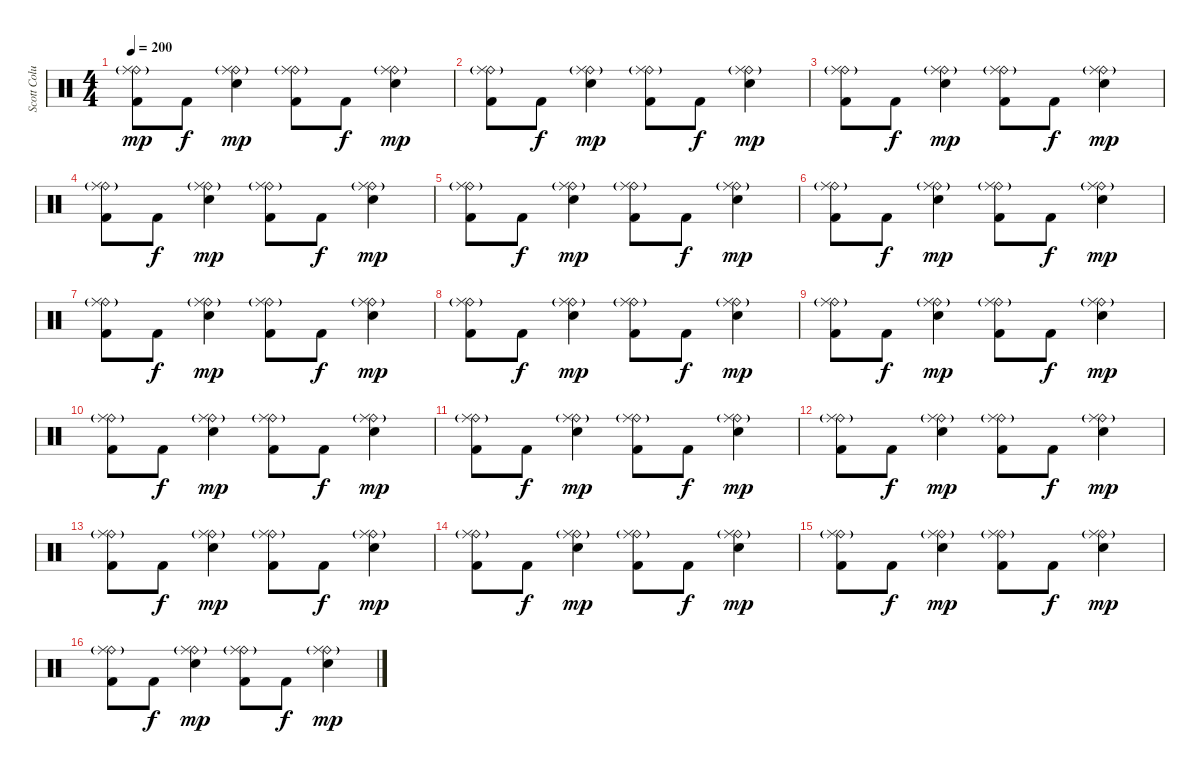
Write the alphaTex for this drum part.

\track ("Scott Columbus" "Scott Colu") {instrument percussion}
\staff {score}
\articulation defaults
\ts (4 4)
\tempo 200
\clef neutral
\ks c
("Ride (bell)"{g} "Ride (middle)" "Kick (hit) 2").8{dy mp} "Kick (hit) 2".8{dy f} ("Ride (bell)"{g} "Ride (middle)" "Snare (hit) 2").4{dy mp} ("Ride (bell)"{g} "Ride (middle)" "Kick (hit) 2").8 "Kick (hit) 2".8{dy f} ("Ride (bell)"{g} "Ride (middle)" "Snare (hit) 2").4{dy mp} |
("Ride (bell)"{g} "Ride (middle)" "Kick (hit) 2").8 "Kick (hit) 2".8{dy f} ("Ride (bell)"{g} "Ride (middle)" "Snare (hit) 2").4{dy mp} ("Ride (bell)"{g} "Ride (middle)" "Kick (hit) 2").8 "Kick (hit) 2".8{dy f} ("Ride (bell)"{g} "Ride (middle)" "Snare (hit) 2").4{dy mp} |
("Ride (bell)"{g} "Ride (middle)" "Kick (hit) 2").8 "Kick (hit) 2".8{dy f} ("Ride (bell)"{g} "Ride (middle)" "Snare (hit) 2").4{dy mp} ("Ride (bell)"{g} "Ride (middle)" "Kick (hit) 2").8 "Kick (hit) 2".8{dy f} ("Ride (bell)"{g} "Ride (middle)" "Snare (hit) 2").4{dy mp} |
("Ride (bell)"{g} "Ride (middle)" "Kick (hit) 2").8 "Kick (hit) 2".8{dy f} ("Ride (bell)"{g} "Ride (middle)" "Snare (hit) 2").4{dy mp} ("Ride (bell)"{g} "Ride (middle)" "Kick (hit) 2").8 "Kick (hit) 2".8{dy f} ("Ride (bell)"{g} "Ride (middle)" "Snare (hit) 2").4{dy mp} |
("Ride (bell)"{g} "Ride (middle)" "Kick (hit) 2").8 "Kick (hit) 2".8{dy f} ("Ride (bell)"{g} "Ride (middle)" "Snare (hit) 2").4{dy mp} ("Ride (bell)"{g} "Ride (middle)" "Kick (hit) 2").8 "Kick (hit) 2".8{dy f} ("Ride (bell)"{g} "Ride (middle)" "Snare (hit) 2").4{dy mp} |
("Ride (bell)"{g} "Ride (middle)" "Kick (hit) 2").8 "Kick (hit) 2".8{dy f} ("Ride (bell)"{g} "Ride (middle)" "Snare (hit) 2").4{dy mp} ("Ride (bell)"{g} "Ride (middle)" "Kick (hit) 2").8 "Kick (hit) 2".8{dy f} ("Ride (bell)"{g} "Ride (middle)" "Snare (hit) 2").4{dy mp} |
("Ride (bell)"{g} "Ride (middle)" "Kick (hit) 2").8 "Kick (hit) 2".8{dy f} ("Ride (bell)"{g} "Ride (middle)" "Snare (hit) 2").4{dy mp} ("Ride (bell)"{g} "Ride (middle)" "Kick (hit) 2").8 "Kick (hit) 2".8{dy f} ("Ride (bell)"{g} "Ride (middle)" "Snare (hit) 2").4{dy mp} |
("Ride (bell)"{g} "Ride (middle)" "Kick (hit) 2").8 "Kick (hit) 2".8{dy f} ("Ride (bell)"{g} "Ride (middle)" "Snare (hit) 2").4{dy mp} ("Ride (bell)"{g} "Ride (middle)" "Kick (hit) 2").8 "Kick (hit) 2".8{dy f} ("Ride (bell)"{g} "Ride (middle)" "Snare (hit) 2").4{dy mp} |
("Ride (bell)"{g} "Ride (middle)" "Kick (hit) 2").8 "Kick (hit) 2".8{dy f} ("Ride (bell)"{g} "Ride (middle)" "Snare (hit) 2").4{dy mp} ("Ride (bell)"{g} "Ride (middle)" "Kick (hit) 2").8 "Kick (hit) 2".8{dy f} ("Ride (bell)"{g} "Ride (middle)" "Snare (hit) 2").4{dy mp} |
("Ride (bell)"{g} "Ride (middle)" "Kick (hit) 2").8 "Kick (hit) 2".8{dy f} ("Ride (bell)"{g} "Ride (middle)" "Snare (hit) 2").4{dy mp} ("Ride (bell)"{g} "Ride (middle)" "Kick (hit) 2").8 "Kick (hit) 2".8{dy f} ("Ride (bell)"{g} "Ride (middle)" "Snare (hit) 2").4{dy mp} |
("Ride (bell)"{g} "Ride (middle)" "Kick (hit) 2").8 "Kick (hit) 2".8{dy f} ("Ride (bell)"{g} "Ride (middle)" "Snare (hit) 2").4{dy mp} ("Ride (bell)"{g} "Ride (middle)" "Kick (hit) 2").8 "Kick (hit) 2".8{dy f} ("Ride (bell)"{g} "Ride (middle)" "Snare (hit) 2").4{dy mp} |
("Ride (bell)"{g} "Ride (middle)" "Kick (hit) 2").8 "Kick (hit) 2".8{dy f} ("Ride (bell)"{g} "Ride (middle)" "Snare (hit) 2").4{dy mp} ("Ride (bell)"{g} "Ride (middle)" "Kick (hit) 2").8 "Kick (hit) 2".8{dy f} ("Ride (bell)"{g} "Ride (middle)" "Snare (hit) 2").4{dy mp} |
("Ride (bell)"{g} "Ride (middle)" "Kick (hit) 2").8 "Kick (hit) 2".8{dy f} ("Ride (bell)"{g} "Ride (middle)" "Snare (hit) 2").4{dy mp} ("Ride (bell)"{g} "Ride (middle)" "Kick (hit) 2").8 "Kick (hit) 2".8{dy f} ("Ride (bell)"{g} "Ride (middle)" "Snare (hit) 2").4{dy mp} |
("Ride (bell)"{g} "Ride (middle)" "Kick (hit) 2").8 "Kick (hit) 2".8{dy f} ("Ride (bell)"{g} "Ride (middle)" "Snare (hit) 2").4{dy mp} ("Ride (bell)"{g} "Ride (middle)" "Kick (hit) 2").8 "Kick (hit) 2".8{dy f} ("Ride (bell)"{g} "Ride (middle)" "Snare (hit) 2").4{dy mp} |
("Ride (bell)"{g} "Ride (middle)" "Kick (hit) 2").8 "Kick (hit) 2".8{dy f} ("Ride (bell)"{g} "Ride (middle)" "Snare (hit) 2").4{dy mp} ("Ride (bell)"{g} "Ride (middle)" "Kick (hit) 2").8 "Kick (hit) 2".8{dy f} ("Ride (bell)"{g} "Ride (middle)" "Snare (hit) 2").4{dy mp} |
("Ride (bell)"{g} "Ride (middle)" "Kick (hit) 2").8 "Kick (hit) 2".8{dy f} ("Ride (bell)"{g} "Ride (middle)" "Snare (hit) 2").4{dy mp} ("Ride (bell)"{g} "Ride (middle)" "Kick (hit) 2").8 "Kick (hit) 2".8{dy f} ("Ride (bell)"{g} "Ride (middle)" "Snare (hit) 2").4{dy mp}
